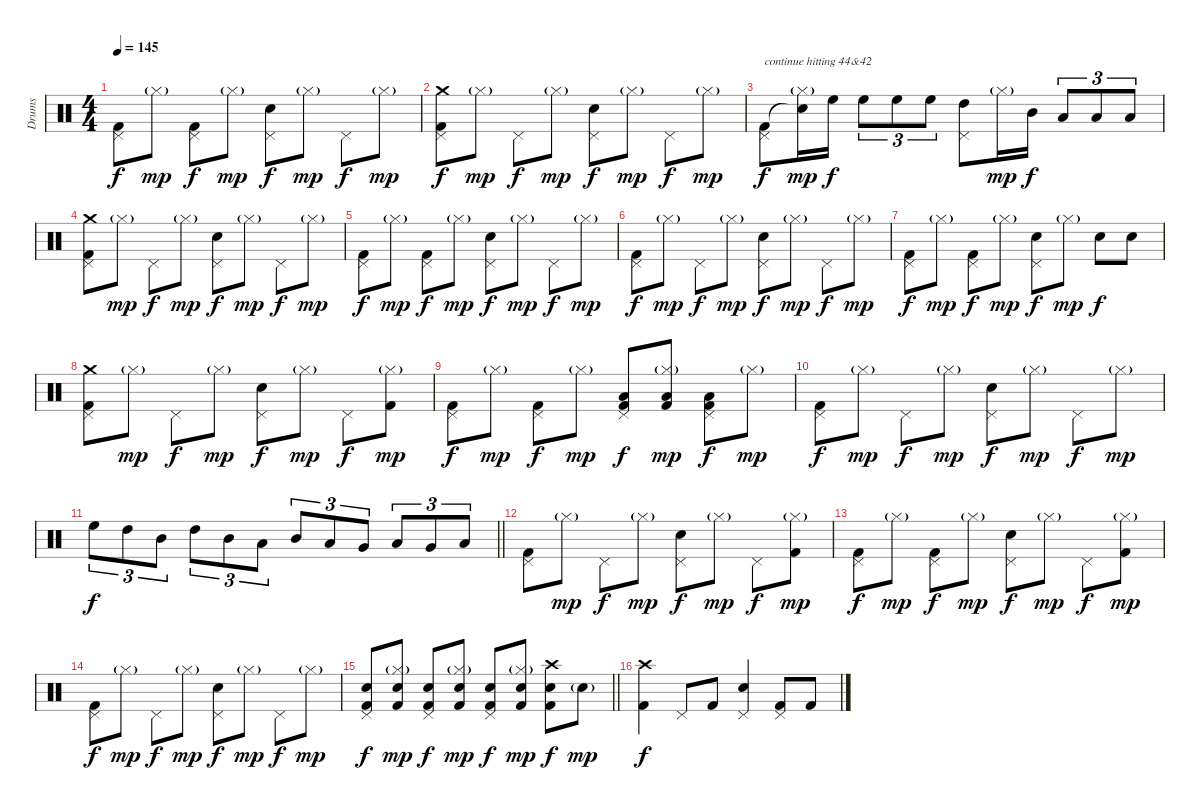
\track ("Drums" "Drums") {instrument percussion}
\staff {score}
\articulation defaults
\ts (4 4)
\tempo 145
\clef neutral
\ks c
("Pedal Hi-Hat (hit)" "Kick (hit) 2").8{dy f} "Hi-Hat (closed)"{g}.8{dy mp} ("Pedal Hi-Hat (hit)" "Kick (hit) 2").8{dy f} "Hi-Hat (closed)"{g}.8{dy mp} ("Pedal Hi-Hat (hit)" "Snare (hit) 2").8{dy f} "Hi-Hat (closed)"{g}.8{dy mp} "Pedal Hi-Hat (hit)".8{dy f} "Hi-Hat (closed)"{g}.8{dy mp} |
("Pedal Hi-Hat (hit)" "Crash medium (hit)" "Kick (hit) 2").8{dy f} "Hi-Hat (closed)"{g}.8{dy mp} "Pedal Hi-Hat (hit)".8{dy f} "Hi-Hat (closed)"{g}.8{dy mp} ("Pedal Hi-Hat (hit)" "Snare (hit) 2").8{dy f} "Hi-Hat (closed)"{g}.8{dy mp} "Pedal Hi-Hat (hit)".8{dy f} "Hi-Hat (closed)"{g}.8{dy mp} |
("Pedal Hi-Hat (hit)" "Kick (hit) 2").8{txt "continue hitting 44&42 " dy f} ("Hi-Hat (closed)"{g} "Snare (hit)"{t}).16{dy mp} "High Floor Tom (hit)".16{dy f} "High Floor Tom (hit)".8{tu (3 2)} "High Floor Tom (hit)".8{tu (3 2)} "High Floor Tom (hit)".8{tu (3 2)} ("Pedal Hi-Hat (hit)" "High Tom (hit)").8 "Hi-Hat (closed)"{g}.16{dy mp} "Mid Tom (hit)".16{dy f} "Low Tom (hit)".8{tu (3 2)} "Low Tom (hit)".8{tu (3 2)} "Low Tom (hit)".8{tu (3 2)} |
("Pedal Hi-Hat (hit)" "Crash medium (hit)" "Kick (hit) 2").8 "Hi-Hat (closed)"{g}.8{dy mp} "Pedal Hi-Hat (hit)".8{dy f} "Hi-Hat (closed)"{g}.8{dy mp} ("Pedal Hi-Hat (hit)" "Snare (hit) 2").8{dy f} "Hi-Hat (closed)"{g}.8{dy mp} "Pedal Hi-Hat (hit)".8{dy f} "Hi-Hat (closed)"{g}.8{dy mp} |
("Pedal Hi-Hat (hit)" "Kick (hit) 2").8{dy f} "Hi-Hat (closed)"{g}.8{dy mp} ("Pedal Hi-Hat (hit)" "Kick (hit) 2").8{dy f} "Hi-Hat (closed)"{g}.8{dy mp} ("Pedal Hi-Hat (hit)" "Snare (hit) 2").8{dy f} "Hi-Hat (closed)"{g}.8{dy mp} "Pedal Hi-Hat (hit)".8{dy f} "Hi-Hat (closed)"{g}.8{dy mp} |
("Pedal Hi-Hat (hit)" "Kick (hit) 2").8{dy f} "Hi-Hat (closed)"{g}.8{dy mp} "Pedal Hi-Hat (hit)".8{dy f} "Hi-Hat (closed)"{g}.8{dy mp} ("Pedal Hi-Hat (hit)" "Snare (hit) 2").8{dy f} "Hi-Hat (closed)"{g}.8{dy mp} "Pedal Hi-Hat (hit)".8{dy f} "Hi-Hat (closed)"{g}.8{dy mp} |
("Pedal Hi-Hat (hit)" "Kick (hit) 2").8{dy f} "Hi-Hat (closed)"{g}.8{dy mp} ("Pedal Hi-Hat (hit)" "Kick (hit) 2").8{dy f} "Hi-Hat (closed)"{g}.8{dy mp} ("Pedal Hi-Hat (hit)" "Snare (hit) 2").8{dy f} "Hi-Hat (closed)"{g}.8{dy mp} "Snare (hit) 2".8{dy f} "Snare (hit) 2".8 |
("Pedal Hi-Hat (hit)" "Crash medium (hit)" "Kick (hit) 2").8 "Hi-Hat (closed)"{g}.8{dy mp} "Pedal Hi-Hat (hit)".8{dy f} "Hi-Hat (closed)"{g}.8{dy mp} ("Pedal Hi-Hat (hit)" "Snare (hit) 2").8{dy f} "Hi-Hat (closed)"{g}.8{dy mp} "Pedal Hi-Hat (hit)".8{dy f} ("Hi-Hat (closed)"{g} "Kick (hit) 2").8{dy mp} |
("Pedal Hi-Hat (hit)" "Kick (hit) 2").8{dy f} "Hi-Hat (closed)"{g}.8{dy mp} ("Pedal Hi-Hat (hit)" "Kick (hit) 2").8{dy f} "Hi-Hat (closed)"{g}.8{dy mp} ("Pedal Hi-Hat (hit)" "Low Tom (hit)" "Kick (hit) 2").8{dy f} ("Hi-Hat (closed)"{g} "Low Floor Tom (hit)" "Kick (hit) 2").8{dy mp} ("Pedal Hi-Hat (hit)" "Low Floor Tom (hit)" "Kick (hit) 2").8{dy f} "Hi-Hat (closed)"{g}.8{dy mp} |
("Pedal Hi-Hat (hit)" "Kick (hit) 2").8{dy f} "Hi-Hat (closed)"{g}.8{dy mp} "Pedal Hi-Hat (hit)".8{dy f} "Hi-Hat (closed)"{g}.8{dy mp} ("Pedal Hi-Hat (hit)" "Snare (hit) 2").8{dy f} "Hi-Hat (closed)"{g}.8{dy mp} "Pedal Hi-Hat (hit)".8{dy f} "Hi-Hat (closed)"{g}.8{dy mp} |
\barLineRight lightlight "High Floor Tom (hit)".8{tu (3 2) dy f} "High Tom (hit)".8{tu (3 2)} "Mid Tom (hit)".8{tu (3 2)} "High Tom (hit)".8{tu (3 2)} "Mid Tom (hit)".8{tu (3 2)} "Low Tom (hit)".8{tu (3 2)} "Mid Tom (hit)".8{tu (3 2)} "Low Tom (hit)".8{tu (3 2)} "Very Low Tom (hit)".8{tu (3 2)} "Low Tom (hit)".8{tu (3 2)} "Very Low Tom (hit)".8{tu (3 2)} "Low Floor Tom (hit)".8{tu (3 2)}
|
\section ("" "")
("Pedal Hi-Hat (hit)" "Kick (hit) 2").8 "Hi-Hat (closed)"{g}.8{dy mp} "Pedal Hi-Hat (hit)".8{dy f} "Hi-Hat (closed)"{g}.8{dy mp} ("Pedal Hi-Hat (hit)" "Snare (hit) 2").8{dy f} "Hi-Hat (closed)"{g}.8{dy mp} "Pedal Hi-Hat (hit)".8{dy f} ("Hi-Hat (closed)"{g} "Kick (hit) 2").8{dy mp} |
("Pedal Hi-Hat (hit)" "Kick (hit) 2").8{dy f} "Hi-Hat (closed)"{g}.8{dy mp} ("Pedal Hi-Hat (hit)" "Kick (hit) 2").8{dy f} "Hi-Hat (closed)"{g}.8{dy mp} ("Pedal Hi-Hat (hit)" "Snare (hit) 2").8{dy f} "Hi-Hat (closed)"{g}.8{dy mp} "Pedal Hi-Hat (hit)".8{dy f} ("Hi-Hat (closed)"{g} "Kick (hit) 2").8{dy mp} |
("Pedal Hi-Hat (hit)" "Kick (hit) 2").8{dy f} "Hi-Hat (closed)"{g}.8{dy mp} "Pedal Hi-Hat (hit)".8{dy f} "Hi-Hat (closed)"{g}.8{dy mp} ("Pedal Hi-Hat (hit)" "Snare (hit) 2").8{dy f} "Hi-Hat (closed)"{g}.8{dy mp} "Pedal Hi-Hat (hit)".8{dy f} "Hi-Hat (closed)"{g}.8{dy mp} |
\barLineRight lightlight
("Pedal Hi-Hat (hit)" "Snare (hit) 2" "Kick (hit) 2").8{dy f} ("Hi-Hat (closed)"{g} "Snare (hit) 2" "Kick (hit) 2").8{dy mp} ("Pedal Hi-Hat (hit)" "Snare (hit) 2" "Kick (hit) 2").8{dy f} ("Hi-Hat (closed)"{g} "Snare (hit) 2" "Kick (hit) 2").8{dy mp} ("Pedal Hi-Hat (hit)" "Snare (hit) 2" "Kick (hit) 2").8{dy f} ("Hi-Hat (closed)"{g} "Snare (hit) 2" "Kick (hit) 2").8{dy mp} ("Crash high (hit)" "Snare (hit) 2" "Kick (hit) 2").8{dy f} "Snare (hit) 2"{g}.8{dy mp} |
\section ("" "")
("Crash high (hit)" "Kick (hit) 2").4{dy f} "Pedal Hi-Hat (hit)".8 "Kick (hit) 2".8 ("Pedal Hi-Hat (hit)" "Snare (hit) 2").4 ("Pedal Hi-Hat (hit)" "Kick (hit) 2").8 "Kick (hit) 2".8
